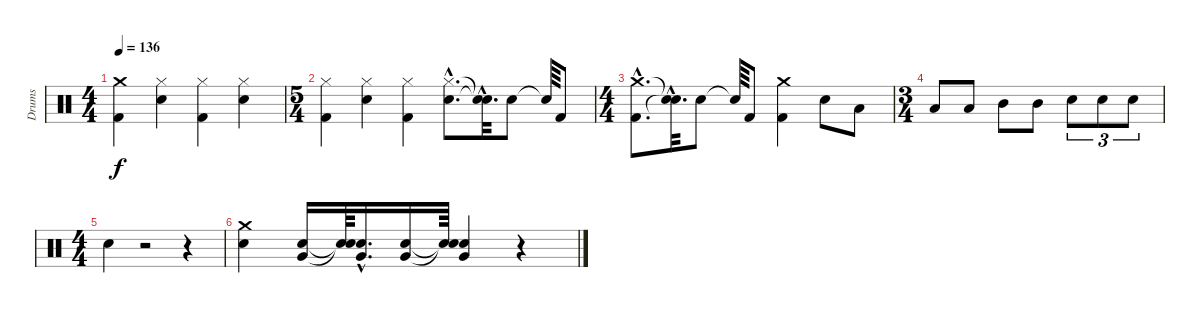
\track ("Drums" "Drums") {instrument percussion}
\staff {score}
\articulation defaults
\ts (4 4)
\tempo 136
\clef neutral
\ks c
("Kick (hit) 2" "Crash medium (hit)").4{dy f} ("Hi-Hat (closed)" "Snare (hit) 2").4 ("Hi-Hat (closed)" "Kick (hit) 2").4 ("Snare (hit) 2" "Hi-Hat (closed)").4 |
\ts (5 4)
("Hi-Hat (closed)" "Kick (hit) 2").4 ("Snare (hit) 2" "Hi-Hat (closed)").4 ("Hi-Hat (closed)" "Kick (hit) 2").4 ("Snare (hit) 2"{hac} "Hi-Hat (closed)"{hac}).8{d} ("Snare (hit)"{hac t} "Snare (hit)"{hac t}).32{d} "Snare (hit) 2".8 "Snare (hit)"{t}.64 "Kick (hit) 2".8 |
\ts (4 4)
("Kick (hit) 2"{hac} "Crash medium (hit)"{hac}).8{d} ("Snare (hit)"{hac t} "Snare (hit)"{hac t}).32{d} "Snare (hit) 2".8 "Snare (hit)"{t}.64 "Kick (hit) 2".8 ("Kick (hit) 2" "Crash medium (hit)").4 "Snare (hit) 2".8 "Low Tom (hit)".8 |
\ts (3 4)
"Low Tom (hit)".8 "Low Tom (hit)".8 "Mid Tom (hit)".8 "Mid Tom (hit)".8 "Snare (hit) 2".8{tu (3 2)} "Snare (hit) 2".8{tu (3 2)} "Snare (hit) 2".8{tu (3 2)} |
\ts (4 4)
"Snare (hit) 2".4 r.2 r.4 |
("Crash medium (hit)" "Snare (hit) 2").4 ("Very Low Tom (hit)" "Snare (hit) 2").16 ("Snare (hit)"{t} "Snare (hit)"{t}).64 ("Very Low Tom (hit)"{hac} "Snare (hit) 2"{hac}).16{d} ("Very Low Tom (hit)" "Snare (hit) 2").16 ("Snare (hit)"{t} "Snare (hit)"{t}).64 ("Very Low Tom (hit)" "Snare (hit) 2").4 r.4
